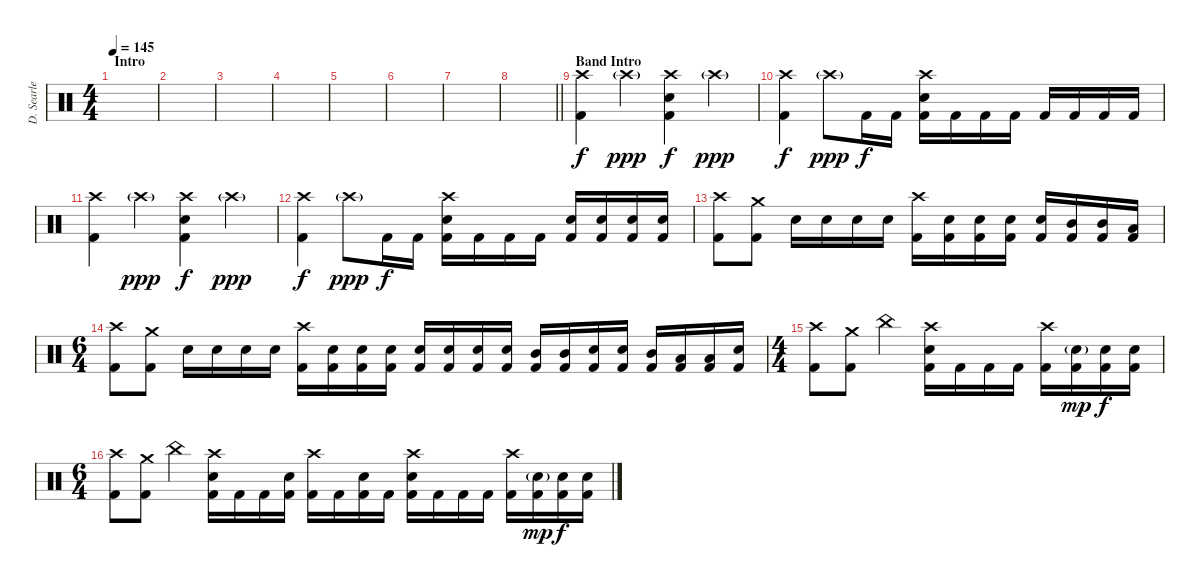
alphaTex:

\track ("D. Searle" "D. Searle") {instrument percussion}
\staff {score}
\articulation defaults
\ts (4 4)
\section ("" "Intro")
\tempo 145
\clef neutral
\ks c
|
|
|
|
|
|
|
\barLineRight lightlight
|
\section ("" "Band Intro")
("Crash high (hit)" "Kick (hit) 2").4 "Crash high (hit)"{g}.4{dy ppp} ("Crash high (hit)" "Electric Snare (hit)" "Kick (hit) 2").4{dy f} "Crash high (hit)"{g}.4{dy ppp} |
("Crash high (hit)" "Kick (hit) 2").4{dy f} "Crash high (hit)"{g}.8{dy ppp} "Kick (hit) 2".16{dy f} "Kick (hit) 2".16 ("Crash high (hit)" "Electric Snare (hit)" "Kick (hit) 2").16 "Kick (hit) 2".16 "Kick (hit) 2".16 "Kick (hit) 2".16 "Kick (hit) 2".16 "Kick (hit) 2".16 "Kick (hit) 2".16 "Kick (hit) 2".16 |
("Crash high (hit)" "Kick (hit) 2").4 "Crash high (hit)"{g}.4{dy ppp} ("Crash high (hit)" "Electric Snare (hit)" "Kick (hit) 2").4{dy f} "Crash high (hit)"{g}.4{dy ppp} |
("Crash high (hit)" "Kick (hit) 2").4{dy f} "Crash high (hit)"{g}.8{dy ppp} "Kick (hit) 2".16{dy f} "Kick (hit) 2".16 ("Crash high (hit)" "Electric Snare (hit)" "Kick (hit) 2").16 "Kick (hit) 2".16 "Kick (hit) 2".16 "Kick (hit) 2".16 ("Electric Snare (hit)" "Kick (hit) 2").16 ("Electric Snare (hit)" "Kick (hit) 2").16 ("Electric Snare (hit)" "Kick (hit) 2").16 ("Electric Snare (hit)" "Kick (hit) 2").16 |
("Crash high (hit)" "Kick (hit) 2").8 ("Crash medium (hit)" "Kick (hit) 2").8 "Electric Snare (hit)".16 "Electric Snare (hit)".16 "Electric Snare (hit)".16 "Electric Snare (hit)".16 ("Crash high (hit)" "Kick (hit) 2").16 ("Electric Snare (hit)" "Kick (hit) 2").16 ("Electric Snare (hit)" "Kick (hit) 2").16 ("Electric Snare (hit)" "Kick (hit) 2").16 ("Electric Snare (hit)" "Kick (hit) 2").16 ("Mid Tom (hit)" "Kick (hit) 2").16 ("Mid Tom (hit)" "Kick (hit) 2").16 ("Low Tom (hit)" "Kick (hit) 2").16 |
\ts (6 4)
("Crash high (hit)" "Kick (hit) 2").8 ("Crash medium (hit)" "Kick (hit) 2").8 "Electric Snare (hit)".16 "Electric Snare (hit)".16 "Electric Snare (hit)".16 "Electric Snare (hit)".16 ("Crash high (hit)" "Kick (hit) 2").16 ("Electric Snare (hit)" "Kick (hit) 2").16 ("Electric Snare (hit)" "Kick (hit) 2").16 ("Electric Snare (hit)" "Kick (hit) 2").16 ("Electric Snare (hit)" "Kick (hit) 2").16 ("Electric Snare (hit)" "Kick (hit) 2").16 ("Electric Snare (hit)" "Kick (hit) 2").16 ("Electric Snare (hit)" "Kick (hit) 2").16 ("Mid Tom (hit)" "Kick (hit) 2").16 ("Mid Tom (hit)" "Kick (hit) 2").16 ("Electric Snare (hit)" "Kick (hit) 2").16 ("Electric Snare (hit)" "Kick (hit) 2").16 ("Mid Tom (hit)" "Kick (hit) 2").16 ("Low Tom (hit)" "Kick (hit) 2").16 ("Low Tom (hit)" "Kick (hit) 2").16 ("Electric Snare (hit)" "Kick (hit) 2").16 |
\ts (4 4)
("Crash high (hit)" "Kick (hit) 2").8 ("Crash medium (hit)" "Kick (hit) 2").8 "China (hit)".4 ("Crash high (hit)" "Electric Snare (hit)" "Kick (hit) 2").16 "Kick (hit) 2".16 "Kick (hit) 2".16 "Kick (hit) 2".16 ("Crash high (hit)" "Kick (hit) 2").16 ("Electric Snare (hit)"{g} "Kick (hit) 2").16{dy mp} ("Electric Snare (hit)" "Kick (hit) 2").16{dy f} ("Electric Snare (hit)" "Kick (hit) 2").16 |
\ts (6 4)
("Crash high (hit)" "Kick (hit) 2").8 ("Crash medium (hit)" "Kick (hit) 2").8 "China (hit)".4 ("Crash high (hit)" "Electric Snare (hit)" "Kick (hit) 2").16 "Kick (hit) 2".16 "Kick (hit) 2".16 ("Electric Snare (hit)" "Kick (hit) 2").16 ("Crash high (hit)" "Kick (hit) 2").16 "Kick (hit) 2".16 ("Electric Snare (hit)" "Kick (hit) 2").16 "Kick (hit) 2".16 ("Crash high (hit)" "Electric Snare (hit)" "Kick (hit) 2").16 "Kick (hit) 2".16 "Kick (hit) 2".16 "Kick (hit) 2".16 ("Crash high (hit)" "Kick (hit) 2").16 ("Electric Snare (hit)"{g} "Kick (hit) 2").16{dy mp} ("Electric Snare (hit)" "Kick (hit) 2").16{dy f} ("Electric Snare (hit)" "Kick (hit) 2").16
